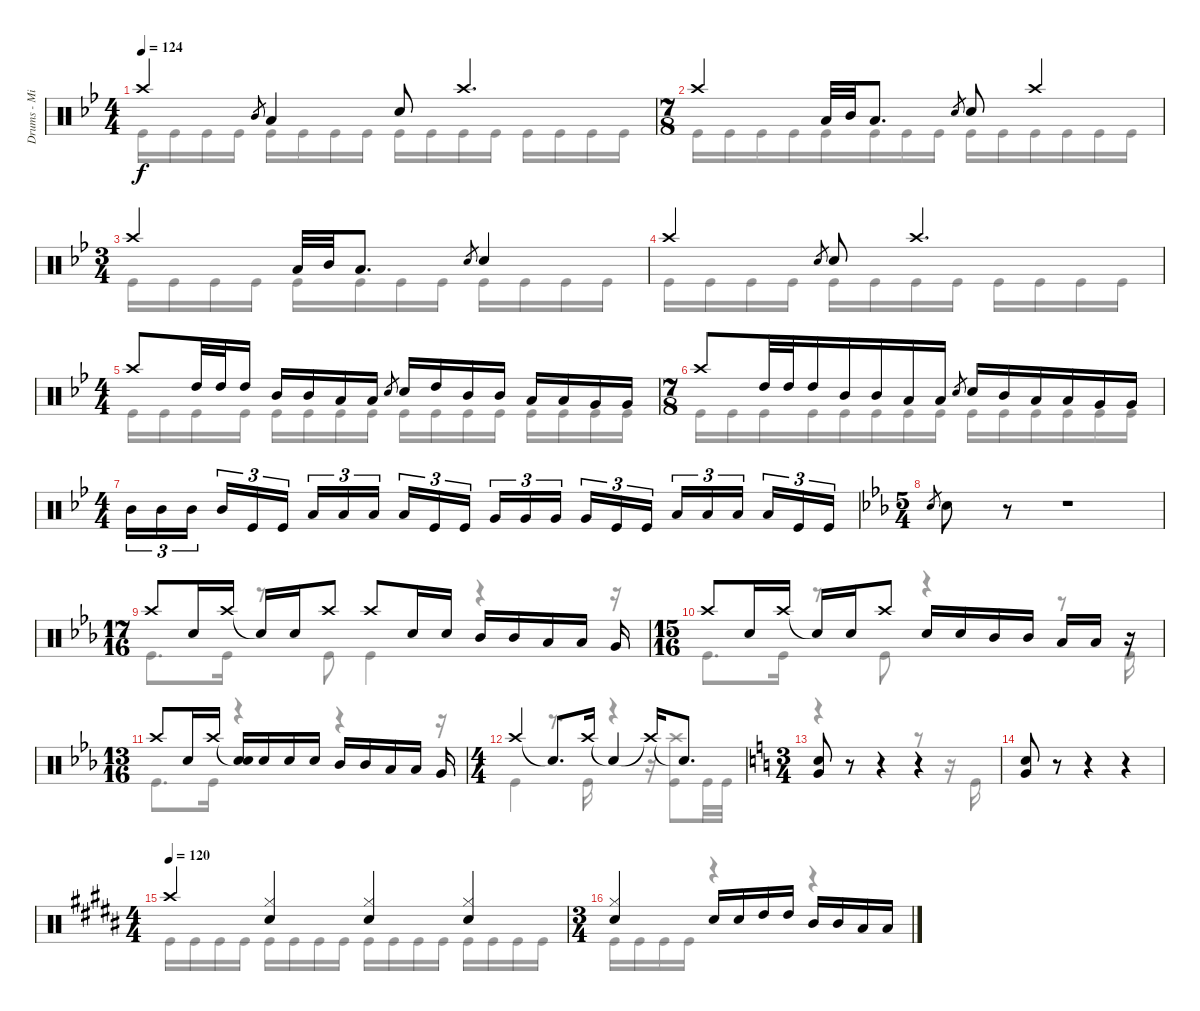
\track ("Drums - Mike Portnoy" "Drums - Mi") {instrument percussion}
\staff {score}
\articulation defaults
\voice
\ts (4 4)
\tempo 124
\clef neutral
\ks bb "Crash high (hit)".4{dy f} "Mid Tom (hit)".8{gr} "Low Tom (hit)".4 "Snare (hit) 2".8 "Crash high (hit)".4{d}
|
\ts (7 8)
"Crash high (hit)".4 "Low Tom (hit)".32 "Mid Tom (hit)".32 "Low Tom (hit)".8{d} "Snare (hit) 2".8{gr} "Snare (hit) 2".8 "Crash high (hit)".4 |
\ts (3 4)
"Crash high (hit)".4 "Low Tom (hit)".32 "Mid Tom (hit)".32 "Low Tom (hit)".8{d} "Snare (hit) 2".8{gr} "Snare (hit) 2".4 |
"Crash high (hit)".4 "Snare (hit) 2".8{gr} "Snare (hit) 2".8 "Crash high (hit)".4{d} |
\ts (4 4)
"Crash high (hit)".8 "High Tom (hit)".32 "High Tom (hit)".32 "High Tom (hit)".16 "Mid Tom (hit)".16 "Mid Tom (hit)".16 "Low Tom (hit)".16 "Low Tom (hit)".16 "Snare (hit) 2".8{gr} "Snare (hit) 2".16 "High Tom (hit)".16 "Mid Tom (hit)".16 "Mid Tom (hit)".16 "Low Tom (hit)".16 "Low Tom (hit)".16 "Very Low Tom (hit)".16 "Very Low Tom (hit)".16 |
\ts (7 8)
"Crash high (hit)".8 "High Tom (hit)".32 "High Tom (hit)".32 "High Tom (hit)".16 "Mid Tom (hit)".16 "Mid Tom (hit)".16 "Low Tom (hit)".16 "Low Tom (hit)".16 "Snare (hit) 2".8{gr} "Snare (hit) 2".16 "Mid Tom (hit)".16 "Low Tom (hit)".16 "Low Tom (hit)".16 "Very Low Tom (hit)".16 "Very Low Tom (hit)".16 |
\ts (4 4)
"Mid Tom (hit)".16{tu (3 2)} "Mid Tom (hit)".16{tu (3 2)} "Mid Tom (hit)".16{tu (3 2) beam splitsecondary} "Mid Tom (hit)".16{tu (3 2)} "Kick (hit)".16{tu (3 2)} "Kick (hit)".16{tu (3 2)} "Low Tom (hit)".16{tu (3 2)} "Low Tom (hit)".16{tu (3 2)} "Low Tom (hit)".16{tu (3 2) beam splitsecondary} "Low Tom (hit)".16{tu (3 2)} "Kick (hit)".16{tu (3 2)} "Kick (hit)".16{tu (3 2)} "Very Low Tom (hit)".16{tu (3 2)} "Very Low Tom (hit)".16{tu (3 2)} "Very Low Tom (hit)".16{tu (3 2) beam splitsecondary} "Very Low Tom (hit)".16{tu (3 2)} "Kick (hit)".16{tu (3 2)} "Kick (hit)".16{tu (3 2)} "Low Floor Tom (hit)".16{tu (3 2)} "Low Floor Tom (hit)".16{tu (3 2)} "Low Floor Tom (hit)".16{tu (3 2) beam splitsecondary} "Low Floor Tom (hit)".16{tu (3 2)} "Kick (hit)".16{tu (3 2)} "Kick (hit)".16{tu (3 2)} |
\ts (5 4)
\ks eb "Snare (hit) 2".8{gr} "Snare (hit) 2".8
r.8 r.1 |
\ts (17 16)
"Crash high (hit)".8 "Snare (hit) 2".16 "Crash high (hit)".16 "Snare (hit)"{t}.16 "Snare (hit) 2".16 "Crash high (hit)".8 "Crash high (hit)".8 "Snare (hit) 2".16 "Snare (hit) 2".16 "Mid Tom (hit)".16 "Mid Tom (hit)".16 "Low Tom (hit)".16 "Low Tom (hit)".16 "Very Low Tom (hit)".16 |
\ts (15 16)
"Crash high (hit)".8 "Snare (hit) 2".16 "Crash high (hit)".16 "Snare (hit)"{t}.16 "Snare (hit) 2".16 "Crash high (hit)".8 "Snare (hit) 2".16 "Snare (hit) 2".16 "Mid Tom (hit)".16 "Mid Tom (hit)".16 "Low Tom (hit)".16 "Low Tom (hit)".16 r.16 |
\ts (13 16)
"Crash high (hit)".8 "Snare (hit) 2".16 "Crash high (hit)".16 ("Snare (hit)"{t} "Snare (hit)").16 "Snare (hit) 2".16 "Snare (hit) 2".16 "Snare (hit) 2".16 "Mid Tom (hit)".16 "Mid Tom (hit)".16 "Low Tom (hit)".16 "Low Tom (hit)".16 "Very Low Tom (hit)".16 |
\ts (4 4)
"Crash high (hit)".4 "Snare (hit)"{t}.8{d} "Crash high (hit)".16 "Snare (hit)"{t}.4 "Crash high (hit)"{t}.16 "Snare (hit)"{t}.8{d} |
\ts (3 4)
\ks c
("Very Low Tom (hit)" "Snare (hit) 2").8 r.8 r.4 r.4 |
("Very Low Tom (hit)" "Snare (hit) 2").8 r.8 r.4 r.4 |
\ts (4 4)
\tempo 120
\ks b "Crash high (hit)".4
("Hi-Hat (closed)" "Snare (hit) 2").4 ("Hi-Hat (closed)" "Snare (hit) 2").4 ("Hi-Hat (closed)" "Snare (hit) 2").4 |
\ts (3 4)
("Hi-Hat (closed)" "Snare (hit) 2").4 "Snare (hit) 2".16 "Snare (hit) 2".16 "High Tom (hit)".16 "High Tom (hit)".16 "Mid Tom (hit)".16 "Mid Tom (hit)".16 "Low Tom (hit)".16 "Low Tom (hit)".16
\voice
\clef neutral
\ottava regular
\simile none
\ks bb "Kick (hit)".16{dy f} "Kick (hit)".16 "Kick (hit)".16 "Kick (hit)".16 "Kick (hit)".16 "Kick (hit)".16 "Kick (hit)".16 "Kick (hit)".16 "Kick (hit)".16 "Kick (hit)".16 "Kick (hit)".16 "Kick (hit)".16 "Kick (hit)".16 "Kick (hit)".16 "Kick (hit)".16 "Kick (hit)".16
|
"Kick (hit)".16 "Kick (hit)".16 "Kick (hit)".16 "Kick (hit)".16 "Kick (hit)".16 "Kick (hit)".16 "Kick (hit)".16 "Kick (hit)".16 "Kick (hit)".16 "Kick (hit)".16 "Kick (hit)".16 "Kick (hit)".16 "Kick (hit)".16 "Kick (hit)".16 |
"Kick (hit)".16 "Kick (hit)".16 "Kick (hit)".16 "Kick (hit)".16 "Kick (hit)".16 "Kick (hit)".16 "Kick (hit)".16 "Kick (hit)".16 "Kick (hit)".16 "Kick (hit)".16 "Kick (hit)".16 "Kick (hit)".16 |
"Kick (hit)".16 "Kick (hit)".16 "Kick (hit)".16 "Kick (hit)".16 "Kick (hit)".16 "Kick (hit)".16 "Kick (hit)".16 "Kick (hit)".16 "Kick (hit)".16 "Kick (hit)".16 "Kick (hit)".16 "Kick (hit)".16 |
"Kick (hit)".16 "Kick (hit)".16 "Kick (hit)".16 "Kick (hit)".16 "Kick (hit)".16 "Kick (hit)".16 "Kick (hit)".16 "Kick (hit)".16 "Kick (hit)".16 "Kick (hit)".16 "Kick (hit)".16 "Kick (hit)".16 "Kick (hit)".16 "Kick (hit)".16 "Kick (hit)".16 "Kick (hit)".16 |
"Kick (hit)".16 "Kick (hit)".16 "Kick (hit)".16 "Kick (hit)".16 "Kick (hit)".16 "Kick (hit)".16 "Kick (hit)".16 "Kick (hit)".16 "Kick (hit)".16 "Kick (hit)".16 "Kick (hit)".16 "Kick (hit)".16 "Kick (hit)".16 "Kick (hit)".16 |
|
\ks eb
|
"Kick (hit)".8{d} "Kick (hit)".16 r.8 "Kick (hit)".8 "Kick (hit)".4 r.4 r.16 |
"Kick (hit)".8{d} "Kick (hit)".16 r.8 "Kick (hit)".8 r.4 r.8 "Kick (hit)".16 |
"Kick (hit)".8{d} "Kick (hit)".16 r.4 r.4 r.16 |
"Kick (hit)".4 r.8{d} "Kick (hit)".16 r.4 r.16 ("Crash high (hit)" "Kick (hit)").8 "Kick (hit)".32 "Kick (hit)".32 |
\ks c
r.4 r.4 r.8 r.16 "Kick (hit)".16 |
|
\ks b "Kick (hit)".16 "Kick (hit)".16 "Kick (hit)".16 "Kick (hit)".16 "Kick (hit)".16 "Kick (hit)".16 "Kick (hit)".16 "Kick (hit)".16 "Kick (hit)".16 "Kick (hit)".16 "Kick (hit)".16 "Kick (hit)".16 "Kick (hit)".16 "Kick (hit)".16 "Kick (hit)".16 "Kick (hit)".16
|
"Kick (hit)".16 "Kick (hit)".16 "Kick (hit)".16 "Kick (hit)".16 r.4 r.4
